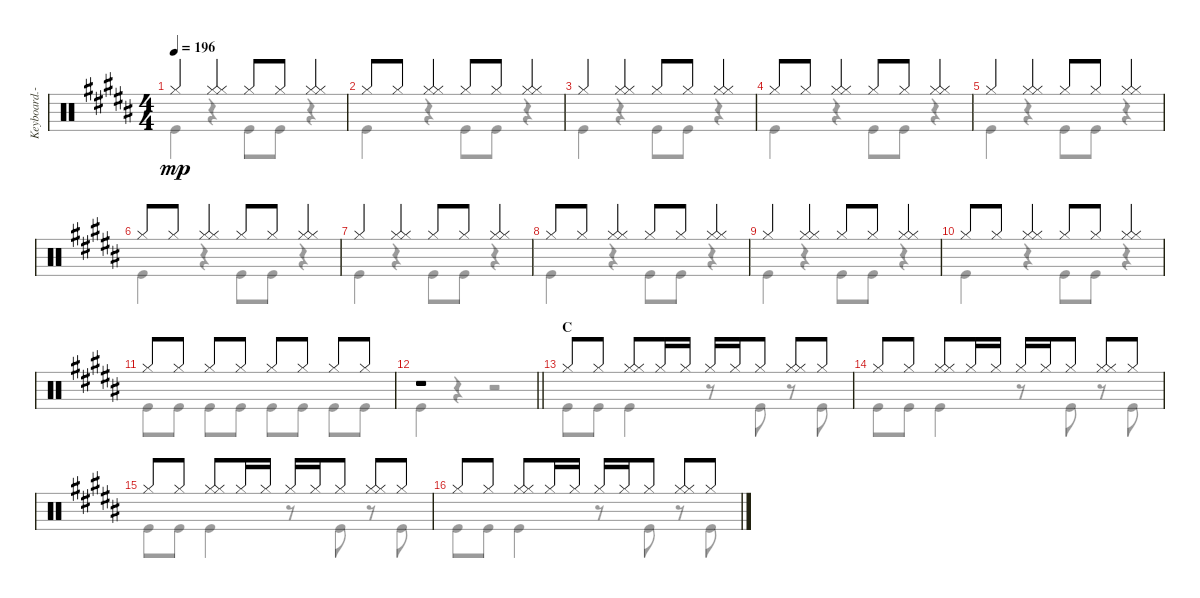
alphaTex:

\track ("Keyboard.-III" "Keyboard.-") {instrument percussion}
\staff {score}
\articulation defaults
\voice
\ts (4 4)
\tempo 196
\clef neutral
\ks b "Hi-Hat (closed)".4{dy mp}
("Hi-Hat (closed)" "Hi-Hat (closed)").4 "Hi-Hat (closed)".8 "Hi-Hat (closed)".8 ("Hi-Hat (closed)" "Hi-Hat (closed)").4 |
"Hi-Hat (closed)".8 "Hi-Hat (closed)".8 ("Hi-Hat (closed)" "Hi-Hat (closed)").4 "Hi-Hat (closed)".8 "Hi-Hat (closed)".8 ("Hi-Hat (closed)" "Hi-Hat (closed)").4 |
"Hi-Hat (closed)".4 ("Hi-Hat (closed)" "Hi-Hat (closed)").4 "Hi-Hat (closed)".8 "Hi-Hat (closed)".8 ("Hi-Hat (closed)" "Hi-Hat (closed)").4 |
"Hi-Hat (closed)".8 "Hi-Hat (closed)".8 ("Hi-Hat (closed)" "Hi-Hat (closed)").4 "Hi-Hat (closed)".8 "Hi-Hat (closed)".8 ("Hi-Hat (closed)" "Hi-Hat (closed)").4 |
"Hi-Hat (closed)".4 ("Hi-Hat (closed)" "Hi-Hat (closed)").4 "Hi-Hat (closed)".8 "Hi-Hat (closed)".8 ("Hi-Hat (closed)" "Hi-Hat (closed)").4 |
"Hi-Hat (closed)".8 "Hi-Hat (closed)".8 ("Hi-Hat (closed)" "Hi-Hat (closed)").4 "Hi-Hat (closed)".8 "Hi-Hat (closed)".8 ("Hi-Hat (closed)" "Hi-Hat (closed)").4 |
"Hi-Hat (closed)".4 ("Hi-Hat (closed)" "Hi-Hat (closed)").4 "Hi-Hat (closed)".8 "Hi-Hat (closed)".8 ("Hi-Hat (closed)" "Hi-Hat (closed)").4 |
"Hi-Hat (closed)".8 "Hi-Hat (closed)".8 ("Hi-Hat (closed)" "Hi-Hat (closed)").4 "Hi-Hat (closed)".8 "Hi-Hat (closed)".8 ("Hi-Hat (closed)" "Hi-Hat (closed)").4 |
"Hi-Hat (closed)".4 ("Hi-Hat (closed)" "Hi-Hat (closed)").4 "Hi-Hat (closed)".8 "Hi-Hat (closed)".8 ("Hi-Hat (closed)" "Hi-Hat (closed)").4 |
"Hi-Hat (closed)".8 "Hi-Hat (closed)".8 ("Hi-Hat (closed)" "Hi-Hat (closed)").4 "Hi-Hat (closed)".8 "Hi-Hat (closed)".8 ("Hi-Hat (closed)" "Hi-Hat (closed)").4 |
"Hi-Hat (closed)".8 "Hi-Hat (closed)".8 "Hi-Hat (closed)".8 "Hi-Hat (closed)".8 "Hi-Hat (closed)".8 "Hi-Hat (closed)".8 "Hi-Hat (closed)".8 "Hi-Hat (closed)".8 |
\barLineRight lightlight
r.1 |
\section ("" "C")
"Hi-Hat (closed)".8 "Hi-Hat (closed)".8 ("Hi-Hat (closed)" "Hi-Hat (closed)").8 "Hi-Hat (closed)".16 "Hi-Hat (closed)".16 "Hi-Hat (closed)".16 "Hi-Hat (closed)".16 "Hi-Hat (closed)".8 ("Hi-Hat (closed)" "Hi-Hat (closed)").8 "Hi-Hat (closed)".8 |
"Hi-Hat (closed)".8 "Hi-Hat (closed)".8 ("Hi-Hat (closed)" "Hi-Hat (closed)").8 "Hi-Hat (closed)".16 "Hi-Hat (closed)".16 "Hi-Hat (closed)".16 "Hi-Hat (closed)".16 "Hi-Hat (closed)".8 ("Hi-Hat (closed)" "Hi-Hat (closed)").8 "Hi-Hat (closed)".8 |
"Hi-Hat (closed)".8 "Hi-Hat (closed)".8 ("Hi-Hat (closed)" "Hi-Hat (closed)").8 "Hi-Hat (closed)".16 "Hi-Hat (closed)".16 "Hi-Hat (closed)".16 "Hi-Hat (closed)".16 "Hi-Hat (closed)".8 ("Hi-Hat (closed)" "Hi-Hat (closed)").8 "Hi-Hat (closed)".8 |
"Hi-Hat (closed)".8 "Hi-Hat (closed)".8 ("Hi-Hat (closed)" "Hi-Hat (closed)").8 "Hi-Hat (closed)".16 "Hi-Hat (closed)".16 "Hi-Hat (closed)".16 "Hi-Hat (closed)".16 "Hi-Hat (closed)".8 ("Hi-Hat (closed)" "Hi-Hat (closed)").8 "Hi-Hat (closed)".8
\voice
\clef neutral
\ottava regular
\simile none
\ks b "Kick (hit)".4{dy mp}
r.4 "Kick (hit)".8 "Kick (hit)".8 r.4 |
"Kick (hit)".4 r.4 "Kick (hit)".8 "Kick (hit)".8 r.4 |
"Kick (hit)".4 r.4 "Kick (hit)".8 "Kick (hit)".8 r.4 |
"Kick (hit)".4 r.4 "Kick (hit)".8 "Kick (hit)".8 r.4 |
"Kick (hit)".4 r.4 "Kick (hit)".8 "Kick (hit)".8 r.4 |
"Kick (hit)".4 r.4 "Kick (hit)".8 "Kick (hit)".8 r.4 |
"Kick (hit)".4 r.4 "Kick (hit)".8 "Kick (hit)".8 r.4 |
"Kick (hit)".4 r.4 "Kick (hit)".8 "Kick (hit)".8 r.4 |
"Kick (hit)".4 r.4 "Kick (hit)".8 "Kick (hit)".8 r.4 |
"Kick (hit)".4 r.4 "Kick (hit)".8 "Kick (hit)".8 r.4 |
"Kick (hit)".8 "Kick (hit)".8 "Kick (hit)".8 "Kick (hit)".8 "Kick (hit)".8 "Kick (hit)".8 "Kick (hit)".8 "Kick (hit)".8 |
\barLineRight lightlight "Kick (hit)".4
r.4 r.2 |
"Kick (hit)".8 "Kick (hit)".8 "Kick (hit)".4 r.8 "Kick (hit)".8 r.8 "Kick (hit)".8 |
"Kick (hit)".8 "Kick (hit)".8 "Kick (hit)".4 r.8 "Kick (hit)".8 r.8 "Kick (hit)".8 |
"Kick (hit)".8 "Kick (hit)".8 "Kick (hit)".4 r.8 "Kick (hit)".8 r.8 "Kick (hit)".8 |
"Kick (hit)".8 "Kick (hit)".8 "Kick (hit)".4 r.8 "Kick (hit)".8 r.8 "Kick (hit)".8
